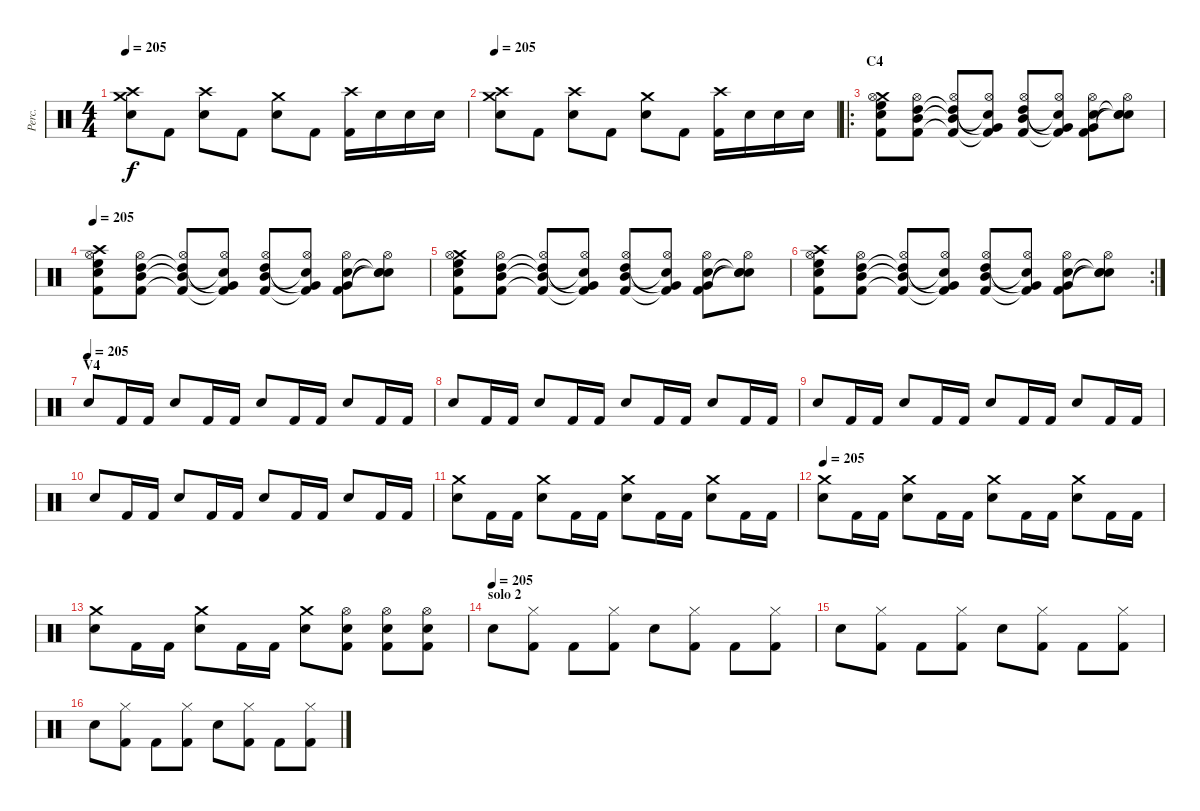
\track ("Perc." "Perc.") {instrument percussion}
\staff {score}
\articulation defaults
\ts (4 4)
\tempo 205
\clef neutral
\ks c
("Crash medium (hit)" "Crash high (hit)" "Snare (hit) 2").8{dy f} "Kick (hit) 2".8 ("Crash high (hit)" "Snare (hit) 2").8 "Kick (hit) 2".8 ("Crash medium (hit)" "Snare (hit) 2").8 "Kick (hit) 2".8 ("Crash high (hit)" "Kick (hit) 2").16 "Snare (hit) 2".16 "Snare (hit) 2".16 "Snare (hit) 2".16 |
\tempo 205
("Crash medium (hit)" "Crash high (hit)" "Snare (hit) 2").8 "Kick (hit) 2".8 ("Crash high (hit)" "Snare (hit) 2").8 "Kick (hit) 2".8 ("Crash medium (hit)" "Snare (hit) 2").8 "Kick (hit) 2".8 ("Crash high (hit)" "Kick (hit) 2").16 "Snare (hit) 2".16 "Snare (hit) 2".16 "Snare (hit) 2".16 |
\ro
\section ("" "C4")
("Crash medium (hit)" "Hi-Hat (open)" "Kick (hit) 2" "High Floor Tom (hit)" "Snare (hit) 2").8 ("Hi-Hat (open)" "Kick (hit) 2" "High Tom (hit)" "Mid Tom (hit)").8 ("Hi-Hat (open)" "Kick (hit) 2"{t} "High Tom (hit)"{t} "Mid Tom (hit)"{t}).8 ("Hi-Hat (open)" "Kick (hit) 2"{t} "Very Low Tom (hit)"{t} "Snare (hit) 2"{t}).8 ("Hi-Hat (open)" "Kick (hit) 2" "High Tom (hit)" "Mid Tom (hit)").8 ("Hi-Hat (open)" "Kick (hit) 2"{t} "Very Low Tom (hit)"{t} "Snare (hit) 2"{t}).8 ("Hi-Hat (open)" "Kick (hit) 2" "Very Low Tom (hit)" "Snare (hit) 2").8 ("Hi-Hat (open)" "Snare (hit)"{t} "Snare (hit)"{t} "Snare (hit)"{t}).8 |
\tempo 205
("Crash high (hit)" "Hi-Hat (open)" "Kick (hit) 2" "High Floor Tom (hit)" "Snare (hit) 2").8 ("Hi-Hat (open)" "Kick (hit) 2" "High Tom (hit)" "Mid Tom (hit)").8 ("Hi-Hat (open)" "Kick (hit) 2"{t} "High Tom (hit)"{t} "Mid Tom (hit)"{t}).8 ("Hi-Hat (open)" "Kick (hit) 2"{t} "Very Low Tom (hit)"{t} "Snare (hit) 2"{t}).8 ("Hi-Hat (open)" "Kick (hit) 2" "High Tom (hit)" "Mid Tom (hit)").8 ("Hi-Hat (open)" "Kick (hit) 2"{t} "Very Low Tom (hit)"{t} "Snare (hit) 2"{t}).8 ("Hi-Hat (open)" "Kick (hit) 2" "Very Low Tom (hit)" "Snare (hit) 2").8 ("Hi-Hat (open)" "Snare (hit)"{t} "Snare (hit)"{t} "Snare (hit)"{t}).8 |
("Crash medium (hit)" "Hi-Hat (open)" "Kick (hit) 2" "High Floor Tom (hit)" "Snare (hit) 2").8 ("Hi-Hat (open)" "Kick (hit) 2" "High Tom (hit)" "Mid Tom (hit)").8 ("Hi-Hat (open)" "Kick (hit) 2"{t} "High Tom (hit)"{t} "Mid Tom (hit)"{t}).8 ("Hi-Hat (open)" "Kick (hit) 2"{t} "Very Low Tom (hit)"{t} "Snare (hit) 2"{t}).8 ("Hi-Hat (open)" "Kick (hit) 2" "High Tom (hit)" "Mid Tom (hit)").8 ("Hi-Hat (open)" "Kick (hit) 2"{t} "Very Low Tom (hit)"{t} "Snare (hit) 2"{t}).8 ("Hi-Hat (open)" "Kick (hit) 2" "Very Low Tom (hit)" "Snare (hit) 2").8 ("Hi-Hat (open)" "Snare (hit)"{t} "Snare (hit)"{t} "Snare (hit)"{t}).8 |
\rc 2
("Crash high (hit)" "Hi-Hat (open)" "Kick (hit) 2" "High Floor Tom (hit)" "Snare (hit) 2").8 ("Hi-Hat (open)" "Kick (hit) 2" "High Tom (hit)" "Mid Tom (hit)").8 ("Hi-Hat (open)" "Kick (hit) 2"{t} "High Tom (hit)"{t} "Mid Tom (hit)"{t}).8 ("Hi-Hat (open)" "Kick (hit) 2"{t} "Very Low Tom (hit)"{t} "Snare (hit) 2"{t}).8 ("Hi-Hat (open)" "Kick (hit) 2" "High Tom (hit)" "Mid Tom (hit)").8 ("Hi-Hat (open)" "Kick (hit) 2"{t} "Very Low Tom (hit)"{t} "Snare (hit) 2"{t}).8 ("Hi-Hat (open)" "Kick (hit) 2" "Very Low Tom (hit)" "Snare (hit) 2").8 ("Hi-Hat (open)" "Snare (hit)"{t} "Snare (hit)"{t} "Snare (hit)"{t}).8 |
\section ("" "V4")
\tempo (205)
"Snare (hit) 2".8 "Kick (hit) 2".16 "Kick (hit) 2".16 "Snare (hit) 2".8 "Kick (hit) 2".16 "Kick (hit) 2".16 "Snare (hit) 2".8 "Kick (hit) 2".16 "Kick (hit) 2".16 "Snare (hit) 2".8 "Kick (hit) 2".16 "Kick (hit) 2".16 |
"Snare (hit) 2".8 "Kick (hit) 2".16 "Kick (hit) 2".16 "Snare (hit) 2".8 "Kick (hit) 2".16 "Kick (hit) 2".16 "Snare (hit) 2".8 "Kick (hit) 2".16 "Kick (hit) 2".16 "Snare (hit) 2".8 "Kick (hit) 2".16 "Kick (hit) 2".16 |
"Snare (hit) 2".8 "Kick (hit) 2".16 "Kick (hit) 2".16 "Snare (hit) 2".8 "Kick (hit) 2".16 "Kick (hit) 2".16 "Snare (hit) 2".8 "Kick (hit) 2".16 "Kick (hit) 2".16 "Snare (hit) 2".8 "Kick (hit) 2".16 "Kick (hit) 2".16 |
"Snare (hit) 2".8 "Kick (hit) 2".16 "Kick (hit) 2".16 "Snare (hit) 2".8 "Kick (hit) 2".16 "Kick (hit) 2".16 "Snare (hit) 2".8 "Kick (hit) 2".16 "Kick (hit) 2".16 "Snare (hit) 2".8 "Kick (hit) 2".16 "Kick (hit) 2".16 |
("Crash medium (hit)" "Snare (hit) 2").8 "Kick (hit) 2".16 "Kick (hit) 2".16 ("Crash medium (hit)" "Snare (hit) 2").8 "Kick (hit) 2".16 "Kick (hit) 2".16 ("Crash medium (hit)" "Snare (hit) 2").8 "Kick (hit) 2".16 "Kick (hit) 2".16 ("Crash medium (hit)" "Snare (hit) 2").8 "Kick (hit) 2".16 "Kick (hit) 2".16 |
\tempo 205
("Crash medium (hit)" "Snare (hit) 2").8 "Kick (hit) 2".16 "Kick (hit) 2".16 ("Crash medium (hit)" "Snare (hit) 2").8 "Kick (hit) 2".16 "Kick (hit) 2".16 ("Crash medium (hit)" "Snare (hit) 2").8 "Kick (hit) 2".16 "Kick (hit) 2".16 ("Crash medium (hit)" "Snare (hit) 2").8 "Kick (hit) 2".16 "Kick (hit) 2".16 |
("Crash medium (hit)" "Snare (hit) 2").8 "Kick (hit) 2".16 "Kick (hit) 2".16 ("Crash medium (hit)" "Snare (hit) 2").8 "Kick (hit) 2".16 "Kick (hit) 2".16 ("Crash medium (hit)" "Snare (hit) 2").8 ("Hi-Hat (open)" "Snare (hit) 2" "Kick (hit) 2").8 ("Hi-Hat (open)" "Snare (hit) 2" "Kick (hit) 2").8 ("Hi-Hat (open)" "Snare (hit) 2" "Kick (hit) 2").8 |
\section ("" "solo 2")
\tempo (205)
"Snare (hit) 2".8 ("Hi-Hat (closed)" "Kick (hit) 2").8 "Kick (hit) 2".8 ("Hi-Hat (closed)" "Kick (hit) 2").8 "Snare (hit) 2".8 ("Hi-Hat (closed)" "Kick (hit) 2").8 "Kick (hit) 2".8 ("Hi-Hat (closed)" "Kick (hit) 2").8 |
"Snare (hit) 2".8 ("Hi-Hat (closed)" "Kick (hit) 2").8 "Kick (hit) 2".8 ("Hi-Hat (closed)" "Kick (hit) 2").8 "Snare (hit) 2".8 ("Hi-Hat (closed)" "Kick (hit) 2").8 "Kick (hit) 2".8 ("Hi-Hat (closed)" "Kick (hit) 2").8 |
"Snare (hit) 2".8 ("Hi-Hat (closed)" "Kick (hit) 2").8 "Kick (hit) 2".8 ("Hi-Hat (closed)" "Kick (hit) 2").8 "Snare (hit) 2".8 ("Hi-Hat (closed)" "Kick (hit) 2").8 "Kick (hit) 2".8 ("Hi-Hat (closed)" "Kick (hit) 2").8
